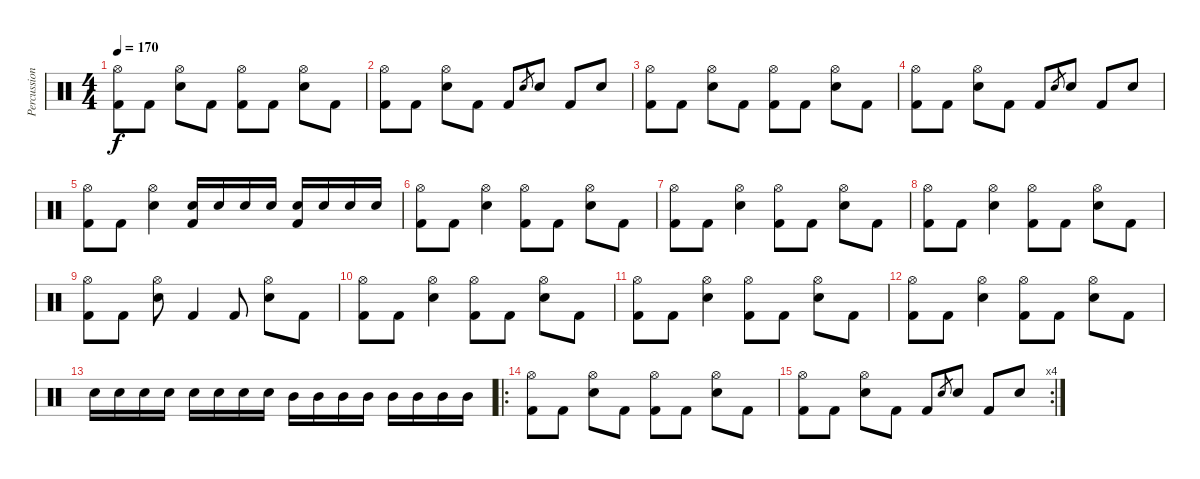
\track ("Percussion" "Percussion") {instrument percussion}
\staff {score}
\articulation defaults
\ts (4 4)
\tempo 170
\clef neutral
\ks c
("Hi-Hat (open)" "Kick (hit) 2").8{dy f} "Kick (hit) 2".8 ("Hi-Hat (open)" "Electric Snare (hit)").8 "Kick (hit) 2".8 ("Hi-Hat (open)" "Kick (hit) 2").8 "Kick (hit) 2".8 ("Hi-Hat (open)" "Electric Snare (hit)").8 "Kick (hit) 2".8 |
("Hi-Hat (open)" "Kick (hit) 2").8 "Kick (hit) 2".8 ("Hi-Hat (open)" "Electric Snare (hit)").8 "Kick (hit) 2".8 "Kick (hit) 2".8 "Electric Snare (hit)".8{gr} "Electric Snare (hit)".8 "Kick (hit) 2".8 "Electric Snare (hit)".8 |
("Hi-Hat (open)" "Kick (hit) 2").8 "Kick (hit) 2".8 ("Hi-Hat (open)" "Electric Snare (hit)").8 "Kick (hit) 2".8 ("Hi-Hat (open)" "Kick (hit) 2").8 "Kick (hit) 2".8 ("Hi-Hat (open)" "Electric Snare (hit)").8 "Kick (hit) 2".8 |
("Hi-Hat (open)" "Kick (hit) 2").8 "Kick (hit) 2".8 ("Hi-Hat (open)" "Electric Snare (hit)").8 "Kick (hit) 2".8 "Kick (hit) 2".8 "Electric Snare (hit)".8{gr} "Electric Snare (hit)".8 "Kick (hit) 2".8 "Electric Snare (hit)".8 |
("Hi-Hat (open)" "Kick (hit) 2").8 "Kick (hit) 2".8 ("Hi-Hat (open)" "Electric Snare (hit)").4 ("Electric Snare (hit)" "Kick (hit) 2").16 "Electric Snare (hit)".16 "Electric Snare (hit)".16 "Electric Snare (hit)".16 ("Electric Snare (hit)" "Kick (hit) 2").16 "Electric Snare (hit)".16 "Electric Snare (hit)".16 "Electric Snare (hit)".16 |
("Hi-Hat (open)" "Kick (hit) 2").8 "Kick (hit) 2".8 ("Hi-Hat (open)" "Electric Snare (hit)").4 ("Hi-Hat (open)" "Kick (hit) 2").8 "Kick (hit) 2".8 ("Hi-Hat (open)" "Electric Snare (hit)").8 "Kick (hit) 2".8 |
("Hi-Hat (open)" "Kick (hit) 2").8 "Kick (hit) 2".8 ("Hi-Hat (open)" "Electric Snare (hit)").4 ("Hi-Hat (open)" "Kick (hit) 2").8 "Kick (hit) 2".8 ("Hi-Hat (open)" "Electric Snare (hit)").8 "Kick (hit) 2".8 |
("Hi-Hat (open)" "Kick (hit) 2").8 "Kick (hit) 2".8 ("Hi-Hat (open)" "Electric Snare (hit)").4 ("Hi-Hat (open)" "Kick (hit) 2").8 "Kick (hit) 2".8 ("Hi-Hat (open)" "Electric Snare (hit)").8 "Kick (hit) 2".8 |
("Hi-Hat (open)" "Kick (hit) 2").8 "Kick (hit) 2".8 ("Hi-Hat (open)" "Electric Snare (hit)").8 "Kick (hit) 2".4 "Kick (hit) 2".8 ("Hi-Hat (open)" "Electric Snare (hit)").8 "Kick (hit) 2".8 |
("Hi-Hat (open)" "Kick (hit) 2").8 "Kick (hit) 2".8 ("Hi-Hat (open)" "Electric Snare (hit)").4 ("Hi-Hat (open)" "Kick (hit) 2").8 "Kick (hit) 2".8 ("Hi-Hat (open)" "Electric Snare (hit)").8 "Kick (hit) 2".8 |
("Hi-Hat (open)" "Kick (hit) 2").8 "Kick (hit) 2".8 ("Hi-Hat (open)" "Electric Snare (hit)").4 ("Hi-Hat (open)" "Kick (hit) 2").8 "Kick (hit) 2".8 ("Hi-Hat (open)" "Electric Snare (hit)").8 "Kick (hit) 2".8 |
("Hi-Hat (open)" "Kick (hit) 2").8 "Kick (hit) 2".8 ("Hi-Hat (open)" "Electric Snare (hit)").4 ("Hi-Hat (open)" "Kick (hit) 2").8 "Kick (hit) 2".8 ("Hi-Hat (open)" "Electric Snare (hit)").8 "Kick (hit) 2".8 |
"Electric Snare (hit)".16 "Electric Snare (hit)".16 "Electric Snare (hit)".16 "Electric Snare (hit)".16 "Electric Snare (hit)".16 "Electric Snare (hit)".16 "Electric Snare (hit)".16 "Electric Snare (hit)".16 "Mid Tom (hit)".16 "Mid Tom (hit)".16 "Mid Tom (hit)".16 "Mid Tom (hit)".16 "Mid Tom (hit)".16 "Mid Tom (hit)".16 "Mid Tom (hit)".16 "Mid Tom (hit)".16 |
\ro
("Hi-Hat (open)" "Kick (hit) 2").8 "Kick (hit) 2".8 ("Hi-Hat (open)" "Electric Snare (hit)").8 "Kick (hit) 2".8 ("Hi-Hat (open)" "Kick (hit) 2").8 "Kick (hit) 2".8 ("Hi-Hat (open)" "Electric Snare (hit)").8 "Kick (hit) 2".8 |
\rc 4
("Hi-Hat (open)" "Kick (hit) 2").8 "Kick (hit) 2".8 ("Hi-Hat (open)" "Electric Snare (hit)").8 "Kick (hit) 2".8 "Kick (hit) 2".8 "Electric Snare (hit)".8{gr} "Electric Snare (hit)".8 "Kick (hit) 2".8 "Electric Snare (hit)".8
